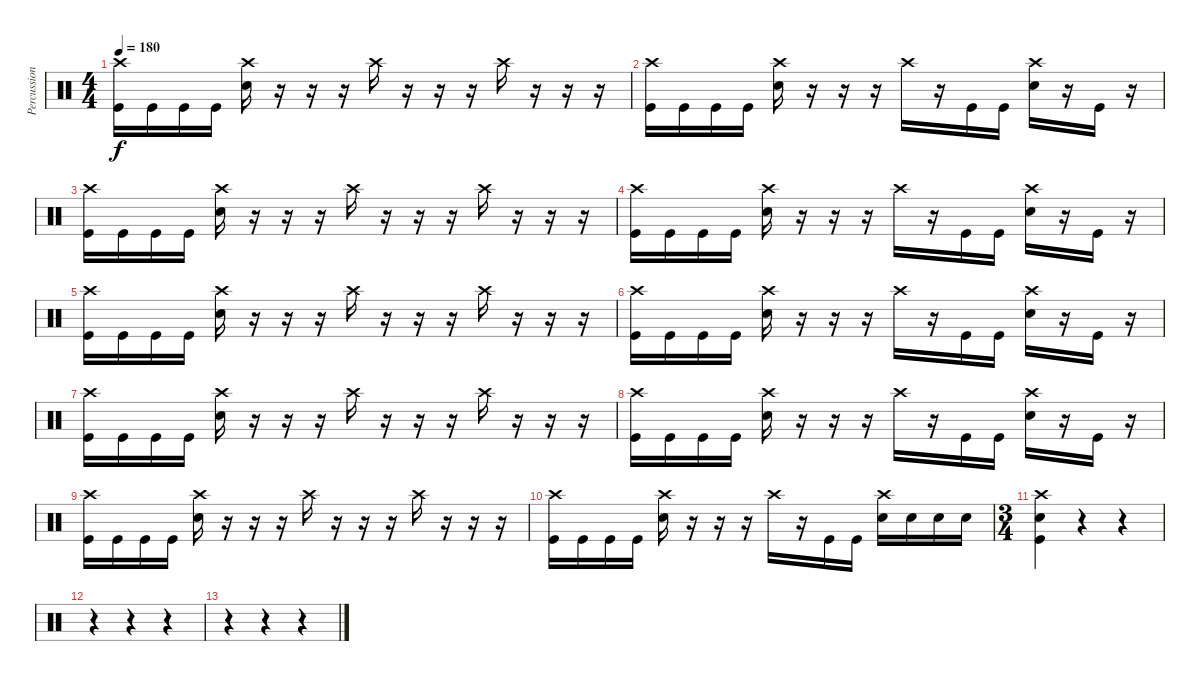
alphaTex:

\track ("Percussion" "Percussion") {instrument percussion}
\staff {score}
\articulation defaults
\ts (4 4)
\tempo 180
\clef neutral
\ks c
("Crash high (hit)" "Kick (hit)").16{dy f} "Kick (hit)".16 "Kick (hit)".16 "Kick (hit)".16 ("Crash high (hit)" "Electric Snare (hit)").16 r.16 r.16 r.16 "Crash high (hit)".16 r.16 r.16 r.16 "Crash high (hit)".16 r.16 r.16 r.16 |
("Crash high (hit)" "Kick (hit)").16 "Kick (hit)".16 "Kick (hit)".16 "Kick (hit)".16 ("Crash high (hit)" "Electric Snare (hit)").16 r.16 r.16 r.16 "Crash high (hit)".16 r.16 "Kick (hit)".16 "Kick (hit)".16 ("Crash high (hit)" "Electric Snare (hit)").16 r.16 "Kick (hit)".16 r.16 |
("Crash high (hit)" "Kick (hit)").16 "Kick (hit)".16 "Kick (hit)".16 "Kick (hit)".16 ("Crash high (hit)" "Electric Snare (hit)").16 r.16 r.16 r.16 "Crash high (hit)".16 r.16 r.16 r.16 "Crash high (hit)".16 r.16 r.16 r.16 |
("Crash high (hit)" "Kick (hit)").16 "Kick (hit)".16 "Kick (hit)".16 "Kick (hit)".16 ("Crash high (hit)" "Electric Snare (hit)").16 r.16 r.16 r.16 "Crash high (hit)".16 r.16 "Kick (hit)".16 "Kick (hit)".16 ("Crash high (hit)" "Electric Snare (hit)").16 r.16 "Kick (hit)".16 r.16 |
("Crash high (hit)" "Kick (hit)").16 "Kick (hit)".16 "Kick (hit)".16 "Kick (hit)".16 ("Crash high (hit)" "Electric Snare (hit)").16 r.16 r.16 r.16 "Crash high (hit)".16 r.16 r.16 r.16 "Crash high (hit)".16 r.16 r.16 r.16 |
("Crash high (hit)" "Kick (hit)").16 "Kick (hit)".16 "Kick (hit)".16 "Kick (hit)".16 ("Crash high (hit)" "Electric Snare (hit)").16 r.16 r.16 r.16 "Crash high (hit)".16 r.16 "Kick (hit)".16 "Kick (hit)".16 ("Crash high (hit)" "Electric Snare (hit)").16 r.16 "Kick (hit)".16 r.16 |
("Crash high (hit)" "Kick (hit)").16 "Kick (hit)".16 "Kick (hit)".16 "Kick (hit)".16 ("Crash high (hit)" "Electric Snare (hit)").16 r.16 r.16 r.16 "Crash high (hit)".16 r.16 r.16 r.16 "Crash high (hit)".16 r.16 r.16 r.16 |
("Crash high (hit)" "Kick (hit)").16 "Kick (hit)".16 "Kick (hit)".16 "Kick (hit)".16 ("Crash high (hit)" "Electric Snare (hit)").16 r.16 r.16 r.16 "Crash high (hit)".16 r.16 "Kick (hit)".16 "Kick (hit)".16 ("Crash high (hit)" "Electric Snare (hit)").16 r.16 "Kick (hit)".16 r.16 |
("Crash high (hit)" "Kick (hit)").16 "Kick (hit)".16 "Kick (hit)".16 "Kick (hit)".16 ("Crash high (hit)" "Electric Snare (hit)").16 r.16 r.16 r.16 "Crash high (hit)".16 r.16 r.16 r.16 "Crash high (hit)".16 r.16 r.16 r.16 |
("Crash high (hit)" "Kick (hit)").16 "Kick (hit)".16 "Kick (hit)".16 "Kick (hit)".16 ("Crash high (hit)" "Electric Snare (hit)").16 r.16 r.16 r.16 "Crash high (hit)".16 r.16 "Kick (hit)".16 "Kick (hit)".16 ("Crash high (hit)" "Electric Snare (hit)").16 "Electric Snare (hit)".16 "Electric Snare (hit)".16 "Electric Snare (hit)".16 |
\ts (3 4)
("Crash high (hit)" "Electric Snare (hit)" "Kick (hit)").4 r.4 r.4 |
r.4 r.4 r.4 |
r.4 r.4 r.4
